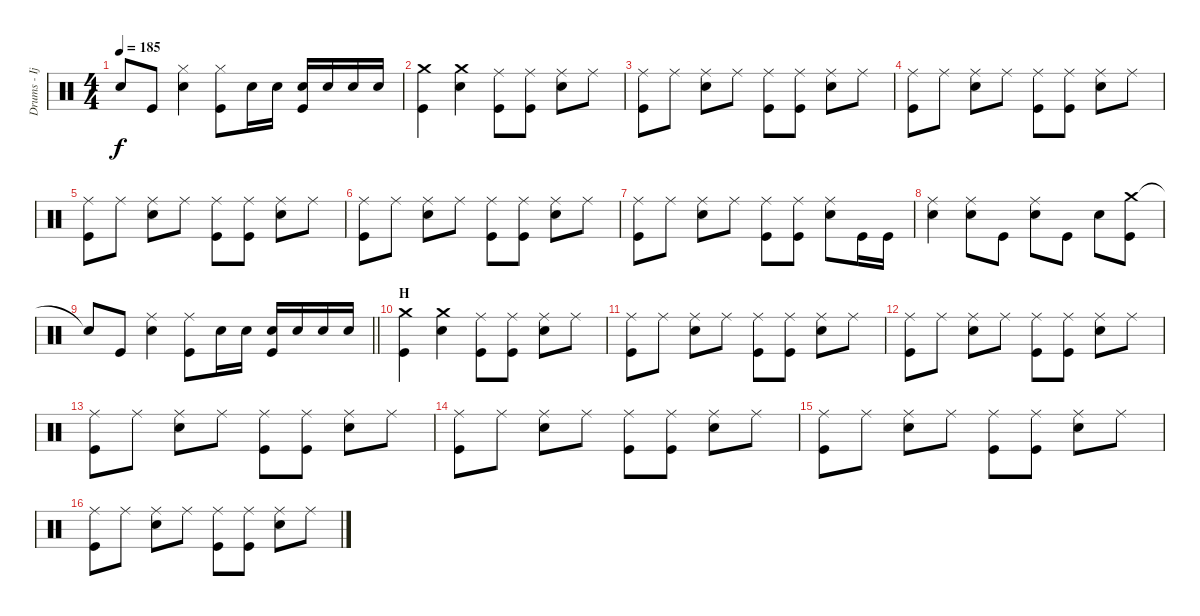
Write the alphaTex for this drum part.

\track ("Drums - Ijichi" "Drums - Ij") {instrument percussion}
\staff {score}
\articulation defaults
\ts (4 4)
\tempo 185
\clef neutral
\ks c "Snare (hit)"{t}.8{dy f} "Kick (hit)".8
("Hi-Hat (closed)" "Electric Snare (hit)").4 ("Hi-Hat (closed)" "Kick (hit)").8 "Electric Snare (hit)".16 "Electric Snare (hit)".16 ("Electric Snare (hit)" "Kick (hit)").16 "Electric Snare (hit)".16 "Electric Snare (hit)".16 "Electric Snare (hit)".16 |
("Crash medium (hit)" "Kick (hit)").4 ("Crash medium (hit)" "Electric Snare (hit)").4 ("Ride (middle)" "Kick (hit)").8 ("Ride (middle)" "Kick (hit)").8 ("Ride (middle)" "Electric Snare (hit)").8 "Ride (middle)".8 |
("Ride (middle)" "Kick (hit)").8 "Ride (middle)".8 ("Ride (middle)" "Electric Snare (hit)").8 "Ride (middle)".8 ("Ride (middle)" "Kick (hit)").8 ("Ride (middle)" "Kick (hit)").8 ("Ride (middle)" "Electric Snare (hit)").8 "Ride (middle)".8 |
("Ride (middle)" "Kick (hit)").8 "Ride (middle)".8 ("Ride (middle)" "Electric Snare (hit)").8 "Ride (middle)".8 ("Ride (middle)" "Kick (hit)").8 ("Ride (middle)" "Kick (hit)").8 ("Ride (middle)" "Electric Snare (hit)").8 "Ride (middle)".8 |
("Ride (middle)" "Kick (hit)").8 "Ride (middle)".8 ("Ride (middle)" "Electric Snare (hit)").8 "Ride (middle)".8 ("Ride (middle)" "Kick (hit)").8 ("Ride (middle)" "Kick (hit)").8 ("Ride (middle)" "Electric Snare (hit)").8 "Ride (middle)".8 |
("Ride (middle)" "Kick (hit)").8 "Ride (middle)".8 ("Ride (middle)" "Electric Snare (hit)").8 "Ride (middle)".8 ("Ride (middle)" "Kick (hit)").8 ("Ride (middle)" "Kick (hit)").8 ("Ride (middle)" "Electric Snare (hit)").8 "Ride (middle)".8 |
("Ride (middle)" "Kick (hit)").8 "Ride (middle)".8 ("Ride (middle)" "Electric Snare (hit)").8 "Ride (middle)".8 ("Ride (middle)" "Kick (hit)").8 ("Ride (middle)" "Kick (hit)").8 ("Ride (middle)" "Electric Snare (hit)").8 "Kick (hit)".16 "Kick (hit)".16 |
("Ride (middle)" "Electric Snare (hit)").4 ("Ride (middle)" "Electric Snare (hit)").8 "Kick (hit)".8 ("Ride (middle)" "Electric Snare (hit)").8 "Kick (hit)".8 "Electric Snare (hit)".8 ("Crash medium (hit)" "Kick (hit)").8 |
\barLineRight lightlight "Snare (hit)"{t}.8 "Kick (hit)".8
("Ride (middle)" "Electric Snare (hit)").4 ("Ride (middle)" "Kick (hit)").8 "Electric Snare (hit)".16 "Electric Snare (hit)".16 ("Electric Snare (hit)" "Kick (hit)").16 "Electric Snare (hit)".16 "Electric Snare (hit)".16 "Electric Snare (hit)".16 |
\section ("" "H")
("Crash medium (hit)" "Kick (hit)").4 ("Crash medium (hit)" "Electric Snare (hit)").4 ("Ride (middle)" "Kick (hit)").8 ("Ride (middle)" "Kick (hit)").8 ("Ride (middle)" "Electric Snare (hit)").8 "Ride (middle)".8 |
("Ride (middle)" "Kick (hit)").8 "Ride (middle)".8 ("Ride (middle)" "Electric Snare (hit)").8 "Ride (middle)".8 ("Ride (middle)" "Kick (hit)").8 ("Ride (middle)" "Kick (hit)").8 ("Ride (middle)" "Electric Snare (hit)").8 "Ride (middle)".8 |
("Ride (middle)" "Kick (hit)").8 "Ride (middle)".8 ("Ride (middle)" "Electric Snare (hit)").8 "Ride (middle)".8 ("Ride (middle)" "Kick (hit)").8 ("Ride (middle)" "Kick (hit)").8 ("Ride (middle)" "Electric Snare (hit)").8 "Ride (middle)".8 |
("Ride (middle)" "Kick (hit)").8 "Ride (middle)".8 ("Ride (middle)" "Electric Snare (hit)").8 "Ride (middle)".8 ("Ride (middle)" "Kick (hit)").8 ("Ride (middle)" "Kick (hit)").8 ("Ride (middle)" "Electric Snare (hit)").8 "Ride (middle)".8 |
("Ride (middle)" "Kick (hit)").8 "Ride (middle)".8 ("Ride (middle)" "Electric Snare (hit)").8 "Ride (middle)".8 ("Ride (middle)" "Kick (hit)").8 ("Ride (middle)" "Kick (hit)").8 ("Ride (middle)" "Electric Snare (hit)").8 "Ride (middle)".8 |
("Ride (middle)" "Kick (hit)").8 "Ride (middle)".8 ("Ride (middle)" "Electric Snare (hit)").8 "Ride (middle)".8 ("Ride (middle)" "Kick (hit)").8 ("Ride (middle)" "Kick (hit)").8 ("Ride (middle)" "Electric Snare (hit)").8 "Ride (middle)".8 |
("Ride (middle)" "Kick (hit)").8 "Ride (middle)".8 ("Ride (middle)" "Electric Snare (hit)").8 "Ride (middle)".8 ("Ride (middle)" "Kick (hit)").8 ("Ride (middle)" "Kick (hit)").8 ("Ride (middle)" "Electric Snare (hit)").8 "Ride (middle)".8
